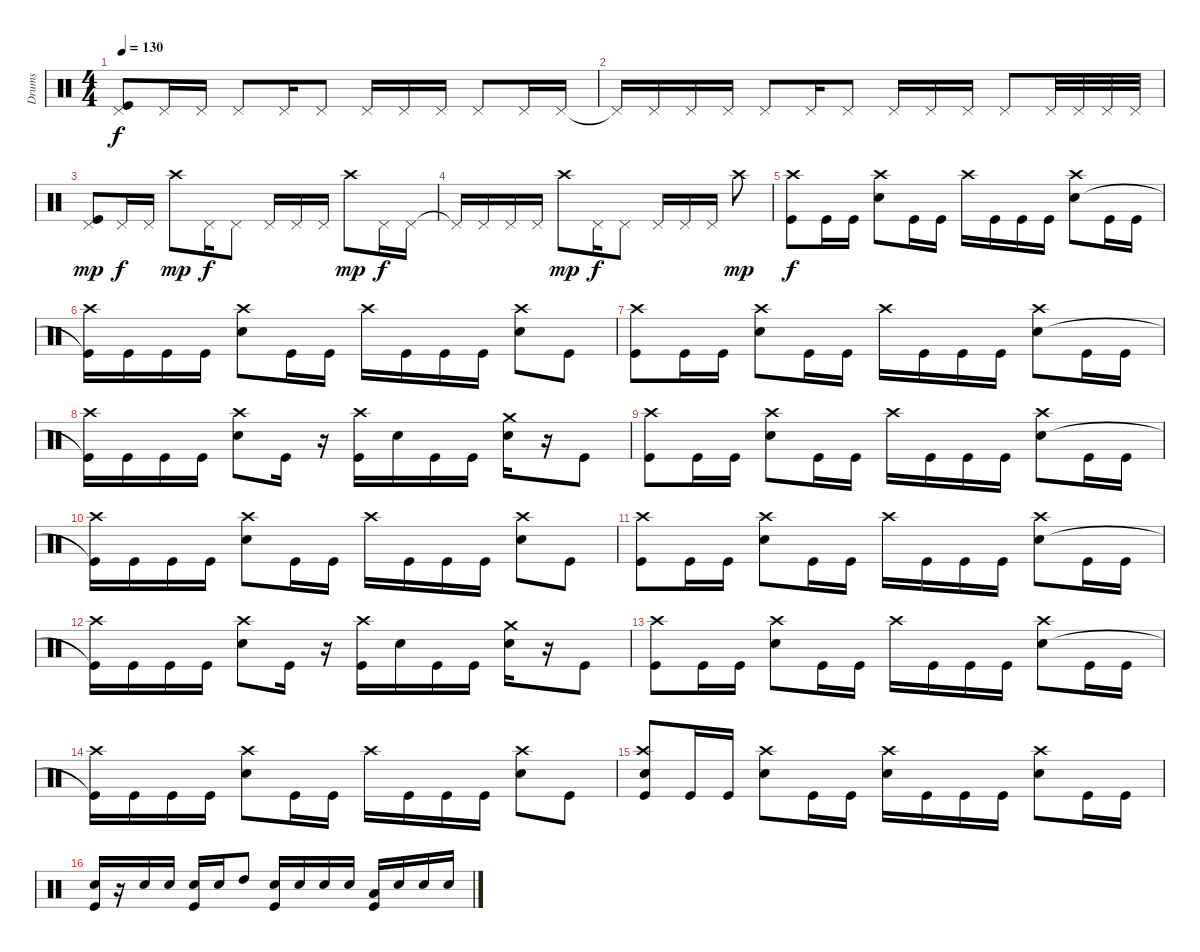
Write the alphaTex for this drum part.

\track ("Drums" "Drums") {instrument percussion}
\staff {score}
\articulation defaults
\ts (4 4)
\tempo 130
\clef neutral
\ks c
("Pedal Hi-Hat (hit)" "Kick (hit)").8{dy f} "Pedal Hi-Hat (hit)".16 "Pedal Hi-Hat (hit)".16 "Pedal Hi-Hat (hit)".8 "Pedal Hi-Hat (hit)".16 "Pedal Hi-Hat (hit)".8 "Pedal Hi-Hat (hit)".16 "Pedal Hi-Hat (hit)".16 "Pedal Hi-Hat (hit)".16 "Pedal Hi-Hat (hit)".8 "Pedal Hi-Hat (hit)".16 "Pedal Hi-Hat (hit)".16 |
"Pedal Hi-Hat (hit)"{t}.16 "Pedal Hi-Hat (hit)".16 "Pedal Hi-Hat (hit)".16 "Pedal Hi-Hat (hit)".16 "Pedal Hi-Hat (hit)".8 "Pedal Hi-Hat (hit)".16 "Pedal Hi-Hat (hit)".8 "Pedal Hi-Hat (hit)".16 "Pedal Hi-Hat (hit)".16 "Pedal Hi-Hat (hit)".16 "Pedal Hi-Hat (hit)".8 "Pedal Hi-Hat (hit)".32 "Pedal Hi-Hat (hit)".32 "Pedal Hi-Hat (hit)".32 "Pedal Hi-Hat (hit)".32 |
("Pedal Hi-Hat (hit)" "Kick (hit)").8{dy mp} "Pedal Hi-Hat (hit)".16{dy f} "Pedal Hi-Hat (hit)".16 "Crash high (hit)".8{dy mp} "Pedal Hi-Hat (hit)".16{dy f} "Pedal Hi-Hat (hit)".8 "Pedal Hi-Hat (hit)".16 "Pedal Hi-Hat (hit)".16 "Pedal Hi-Hat (hit)".16 "Crash high (hit)".8{dy mp} "Pedal Hi-Hat (hit)".16{dy f} "Pedal Hi-Hat (hit)".16 |
"Pedal Hi-Hat (hit)"{t}.16 "Pedal Hi-Hat (hit)".16 "Pedal Hi-Hat (hit)".16 "Pedal Hi-Hat (hit)".16 "Crash high (hit)".8{dy mp} "Pedal Hi-Hat (hit)".16{dy f} "Pedal Hi-Hat (hit)".8 "Pedal Hi-Hat (hit)".16 "Pedal Hi-Hat (hit)".16 "Pedal Hi-Hat (hit)".16 "Crash high (hit)".8{dy mp} |
("Crash high (hit)" "Kick (hit)").8{dy f} "Kick (hit)".16 "Kick (hit)".16 ("Crash high (hit)" "Snare (hit) 2").8 "Kick (hit)".16 "Kick (hit)".16 "Crash high (hit)".16 "Kick (hit)".16 "Kick (hit)".16 "Kick (hit)".16 ("Crash high (hit)" "Snare (hit) 2").8 "Kick (hit)".16 "Kick (hit)".16 |
("Crash high (hit)" "Kick (hit)"{t}).16 "Kick (hit)".16 "Kick (hit)".16 "Kick (hit)".16 ("Crash high (hit)" "Snare (hit) 2").8 "Kick (hit)".16 "Kick (hit)".16 "Crash high (hit)".16 "Kick (hit)".16 "Kick (hit)".16 "Kick (hit)".16 ("Crash high (hit)" "Snare (hit) 2").8 "Kick (hit)".8 |
("Crash high (hit)" "Kick (hit)").8 "Kick (hit)".16 "Kick (hit)".16 ("Crash high (hit)" "Snare (hit) 2").8 "Kick (hit)".16 "Kick (hit)".16 "Crash high (hit)".16 "Kick (hit)".16 "Kick (hit)".16 "Kick (hit)".16 ("Crash high (hit)" "Snare (hit) 2").8 "Kick (hit)".16 "Kick (hit)".16 |
("Crash high (hit)" "Kick (hit)"{t}).16 "Kick (hit)".16 "Kick (hit)".16 "Kick (hit)".16 ("Crash high (hit)" "Snare (hit) 2").8 "Kick (hit)".16 r.16 ("Crash high (hit)" "Kick (hit)").16 "Snare (hit) 2".16 "Kick (hit)".16 "Kick (hit)".16 ("Crash medium (hit)" "Snare (hit) 2").16 r.16 "Kick (hit)".8 |
("Crash high (hit)" "Kick (hit)").8 "Kick (hit)".16 "Kick (hit)".16 ("Crash high (hit)" "Snare (hit) 2").8 "Kick (hit)".16 "Kick (hit)".16 "Crash high (hit)".16 "Kick (hit)".16 "Kick (hit)".16 "Kick (hit)".16 ("Crash high (hit)" "Snare (hit) 2").8 "Kick (hit)".16 "Kick (hit)".16 |
("Crash high (hit)" "Kick (hit)"{t}).16 "Kick (hit)".16 "Kick (hit)".16 "Kick (hit)".16 ("Crash high (hit)" "Snare (hit) 2").8 "Kick (hit)".16 "Kick (hit)".16 "Crash high (hit)".16 "Kick (hit)".16 "Kick (hit)".16 "Kick (hit)".16 ("Crash high (hit)" "Snare (hit) 2").8 "Kick (hit)".8 |
("Crash high (hit)" "Kick (hit)").8 "Kick (hit)".16 "Kick (hit)".16 ("Crash high (hit)" "Snare (hit) 2").8 "Kick (hit)".16 "Kick (hit)".16 "Crash high (hit)".16 "Kick (hit)".16 "Kick (hit)".16 "Kick (hit)".16 ("Crash high (hit)" "Snare (hit) 2").8 "Kick (hit)".16 "Kick (hit)".16 |
("Crash high (hit)" "Kick (hit)"{t}).16 "Kick (hit)".16 "Kick (hit)".16 "Kick (hit)".16 ("Crash high (hit)" "Snare (hit) 2").8 "Kick (hit)".16 r.16 ("Crash high (hit)" "Kick (hit)").16 "Snare (hit) 2".16 "Kick (hit)".16 "Kick (hit)".16 ("Crash medium (hit)" "Snare (hit) 2").16 r.16 "Kick (hit)".8 |
("Crash high (hit)" "Kick (hit)").8 "Kick (hit)".16 "Kick (hit)".16 ("Crash high (hit)" "Snare (hit) 2").8 "Kick (hit)".16 "Kick (hit)".16 "Crash high (hit)".16 "Kick (hit)".16 "Kick (hit)".16 "Kick (hit)".16 ("Crash high (hit)" "Snare (hit) 2").8 "Kick (hit)".16 "Kick (hit)".16 |
("Crash high (hit)" "Kick (hit)"{t}).16 "Kick (hit)".16 "Kick (hit)".16 "Kick (hit)".16 ("Crash high (hit)" "Snare (hit) 2").8 "Kick (hit)".16 "Kick (hit)".16 "Crash high (hit)".16 "Kick (hit)".16 "Kick (hit)".16 "Kick (hit)".16 ("Crash high (hit)" "Snare (hit) 2").8 "Kick (hit)".8 |
("Crash high (hit)" "Snare (hit) 2" "Kick (hit)").8 "Kick (hit)".16 "Kick (hit)".16 ("Crash high (hit)" "Snare (hit) 2").8 "Kick (hit)".16 "Kick (hit)".16 ("Crash high (hit)" "Snare (hit) 2").16 "Kick (hit)".16 "Kick (hit)".16 "Kick (hit)".16 ("Crash high (hit)" "Snare (hit) 2").8 "Kick (hit)".16 "Kick (hit)".16 |
("Snare (hit) 2" "Kick (hit)").16 r.16 "Snare (hit) 2".16 "Snare (hit) 2".16 ("Snare (hit) 2" "Kick (hit)").16 "Snare (hit) 2".16 "High Tom (hit)".8 ("Snare (hit) 2" "Kick (hit)").16 "Snare (hit) 2".16 "Snare (hit) 2".16 "Snare (hit) 2".16 ("Low Tom (hit)" "Kick (hit)").16 "Snare (hit) 2".16 "Snare (hit) 2".16 "Snare (hit) 2".16
